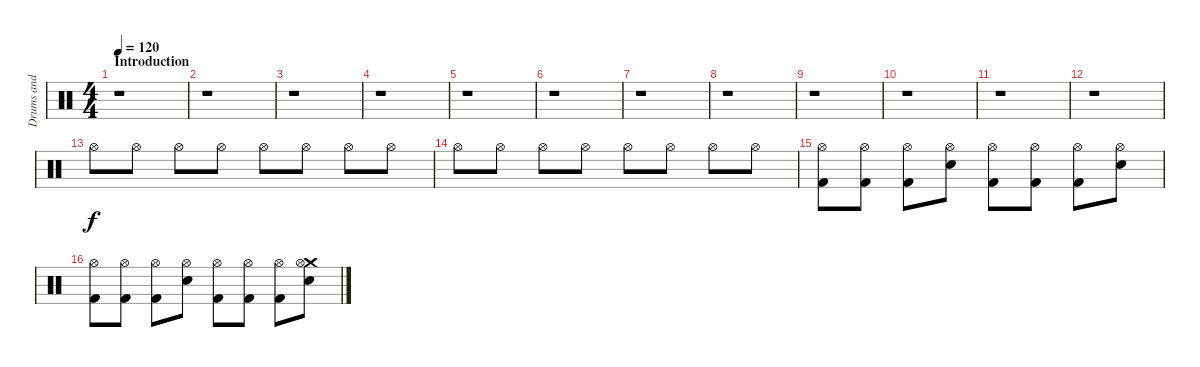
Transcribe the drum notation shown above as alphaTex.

\track ("Drums and Percussion" "Drums and ") {instrument percussion}
\staff {score}
\articulation defaults
\ts (4 4)
\section ("" "Introduction")
\tempo 120
\clef neutral
\ks c
r.1{dy f} |
r.1 |
r.1 |
r.1 |
r.1 |
r.1 |
r.1 |
r.1 |
r.1 |
r.1 |
r.1 |
r.1 |
"Hi-Hat (open)".8{volume 1} "Hi-Hat (open)".8{volume 2} "Hi-Hat (open)".8{volume 3} "Hi-Hat (open)".8{volume 4} "Hi-Hat (open)".8{volume 5} "Hi-Hat (open)".8{volume 6} "Hi-Hat (open)".8{volume 7} "Hi-Hat (open)".8{volume 8} |
"Hi-Hat (open)".8{volume 9} "Hi-Hat (open)".8{volume 10} "Hi-Hat (open)".8{volume 11} "Hi-Hat (open)".8{volume 12} "Hi-Hat (open)".8{volume 13} "Hi-Hat (open)".8 "Hi-Hat (open)".8 "Hi-Hat (open)".8 |
("Hi-Hat (open)" "Kick (hit) 2").8 ("Hi-Hat (open)" "Kick (hit) 2").8 ("Hi-Hat (open)" "Kick (hit) 2").8 ("Hi-Hat (open)" "Electric Snare (hit)").8 ("Hi-Hat (open)" "Kick (hit) 2").8 ("Hi-Hat (open)" "Kick (hit) 2").8 ("Hi-Hat (open)" "Kick (hit) 2").8 ("Hi-Hat (open)" "Electric Snare (hit)").8 |
("Hi-Hat (open)" "Kick (hit) 2").8 ("Hi-Hat (open)" "Kick (hit) 2").8 ("Hi-Hat (open)" "Kick (hit) 2").8 ("Hi-Hat (open)" "Electric Snare (hit)").8 ("Hi-Hat (open)" "Kick (hit) 2").8 ("Hi-Hat (open)" "Kick (hit) 2").8 ("Hi-Hat (open)" "Kick (hit) 2").8 ("Crash medium (hit)" "Hi-Hat (open)" "Electric Snare (hit)").8
